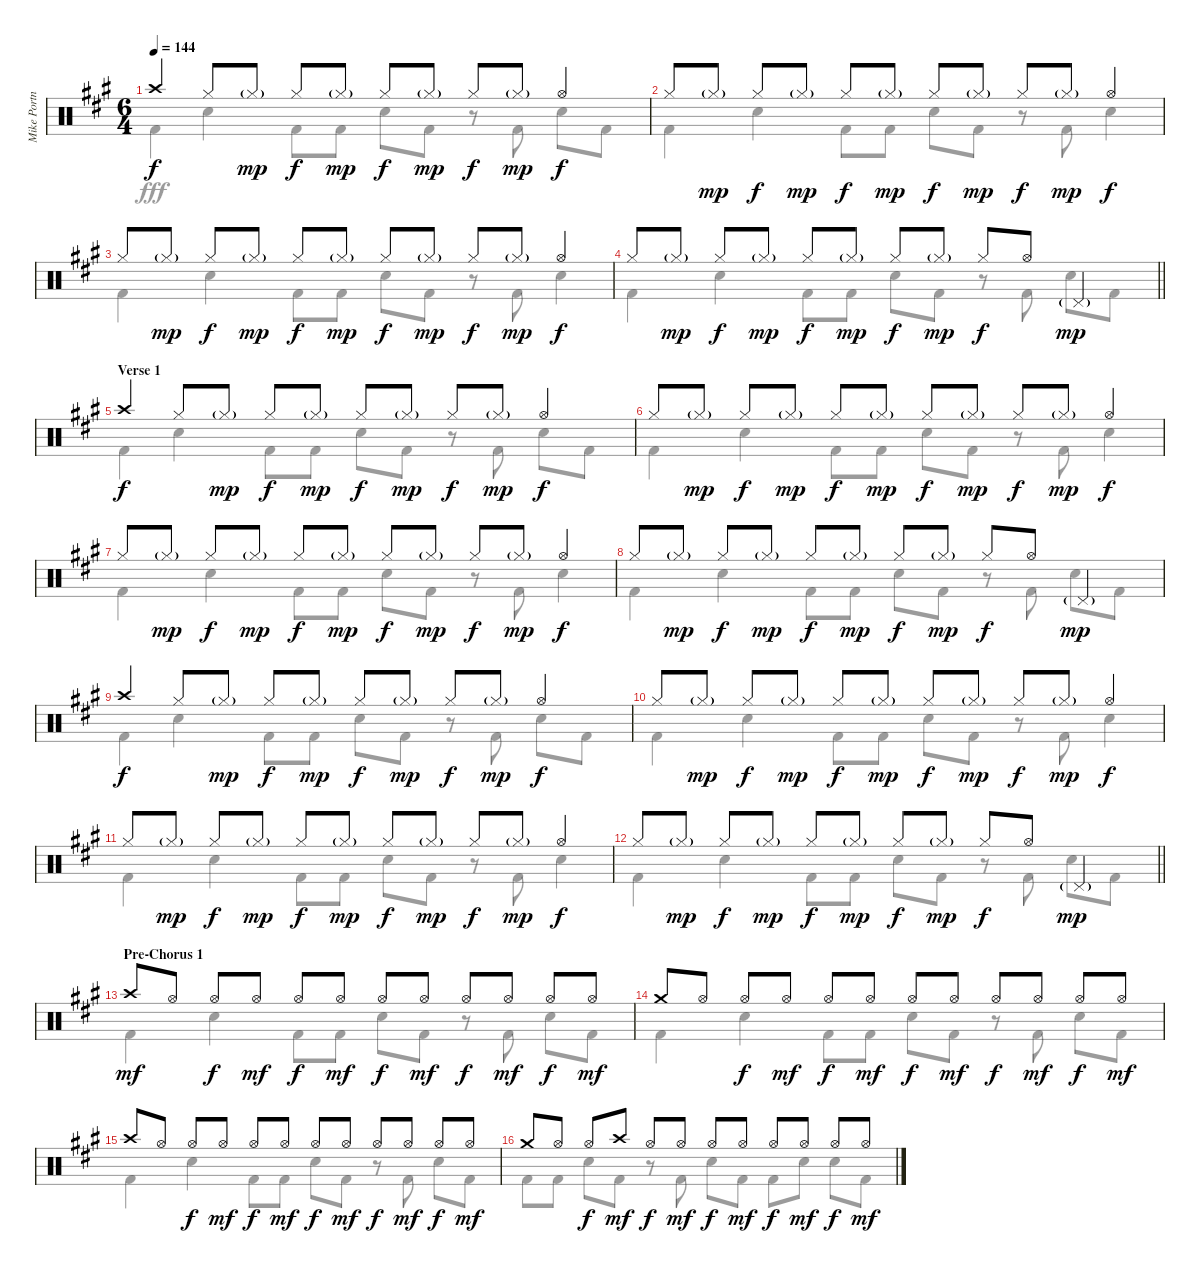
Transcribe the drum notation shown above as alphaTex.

\track ("Mike Portnoy Drums" "Mike Portn") {instrument percussion}
\staff {score}
\articulation defaults
\voice
\ts (6 4)
\tempo 144
\clef neutral
\ks f#minor "Crash high (hit)".4{dy f} "Hi-Hat (closed)".8 "Hi-Hat (closed)"{g}.8{dy mp} "Hi-Hat (closed)".8{dy f} "Hi-Hat (closed)"{g}.8{dy mp} "Hi-Hat (closed)".8{dy f} "Hi-Hat (closed)"{g}.8{dy mp} "Hi-Hat (closed)".8{dy f} "Hi-Hat (closed)"{g}.8{dy mp} "Hi-Hat (open)".4{dy f}
|
"Hi-Hat (closed)".8 "Hi-Hat (closed)"{g}.8{dy mp} "Hi-Hat (closed)".8{dy f} "Hi-Hat (closed)"{g}.8{dy mp} "Hi-Hat (closed)".8{dy f} "Hi-Hat (closed)"{g}.8{dy mp} "Hi-Hat (closed)".8{dy f} "Hi-Hat (closed)"{g}.8{dy mp} "Hi-Hat (closed)".8{dy f} "Hi-Hat (closed)"{g}.8{dy mp} "Hi-Hat (open)".4{dy f} |
"Hi-Hat (closed)".8 "Hi-Hat (closed)"{g}.8{dy mp} "Hi-Hat (closed)".8{dy f} "Hi-Hat (closed)"{g}.8{dy mp} "Hi-Hat (closed)".8{dy f} "Hi-Hat (closed)"{g}.8{dy mp} "Hi-Hat (closed)".8{dy f} "Hi-Hat (closed)"{g}.8{dy mp} "Hi-Hat (closed)".8{dy f} "Hi-Hat (closed)"{g}.8{dy mp} "Hi-Hat (open)".4{dy f} |
\barLineRight lightlight "Hi-Hat (closed)".8 "Hi-Hat (closed)"{g}.8{dy mp} "Hi-Hat (closed)".8{dy f} "Hi-Hat (closed)"{g}.8{dy mp} "Hi-Hat (closed)".8{dy f} "Hi-Hat (closed)"{g}.8{dy mp} "Hi-Hat (closed)".8{dy f} "Hi-Hat (closed)"{g}.8{dy mp} "Hi-Hat (closed)".8{dy f} "Hi-Hat (open)".8 "Pedal Hi-Hat (hit)"{g}.4{dy mp}
|
\section ("" "Verse 1")
"Crash high (hit)".4{dy f} "Hi-Hat (closed)".8 "Hi-Hat (closed)"{g}.8{dy mp} "Hi-Hat (closed)".8{dy f} "Hi-Hat (closed)"{g}.8{dy mp} "Hi-Hat (closed)".8{dy f} "Hi-Hat (closed)"{g}.8{dy mp} "Hi-Hat (closed)".8{dy f} "Hi-Hat (closed)"{g}.8{dy mp} "Hi-Hat (open)".4{dy f} |
"Hi-Hat (closed)".8 "Hi-Hat (closed)"{g}.8{dy mp} "Hi-Hat (closed)".8{dy f} "Hi-Hat (closed)"{g}.8{dy mp} "Hi-Hat (closed)".8{dy f} "Hi-Hat (closed)"{g}.8{dy mp} "Hi-Hat (closed)".8{dy f} "Hi-Hat (closed)"{g}.8{dy mp} "Hi-Hat (closed)".8{dy f} "Hi-Hat (closed)"{g}.8{dy mp} "Hi-Hat (open)".4{dy f} |
"Hi-Hat (closed)".8 "Hi-Hat (closed)"{g}.8{dy mp} "Hi-Hat (closed)".8{dy f} "Hi-Hat (closed)"{g}.8{dy mp} "Hi-Hat (closed)".8{dy f} "Hi-Hat (closed)"{g}.8{dy mp} "Hi-Hat (closed)".8{dy f} "Hi-Hat (closed)"{g}.8{dy mp} "Hi-Hat (closed)".8{dy f} "Hi-Hat (closed)"{g}.8{dy mp} "Hi-Hat (open)".4{dy f} |
"Hi-Hat (closed)".8 "Hi-Hat (closed)"{g}.8{dy mp} "Hi-Hat (closed)".8{dy f} "Hi-Hat (closed)"{g}.8{dy mp} "Hi-Hat (closed)".8{dy f} "Hi-Hat (closed)"{g}.8{dy mp} "Hi-Hat (closed)".8{dy f} "Hi-Hat (closed)"{g}.8{dy mp} "Hi-Hat (closed)".8{dy f} "Hi-Hat (open)".8 "Pedal Hi-Hat (hit)"{g}.4{dy mp} |
"Crash high (hit)".4{dy f} "Hi-Hat (closed)".8 "Hi-Hat (closed)"{g}.8{dy mp} "Hi-Hat (closed)".8{dy f} "Hi-Hat (closed)"{g}.8{dy mp} "Hi-Hat (closed)".8{dy f} "Hi-Hat (closed)"{g}.8{dy mp} "Hi-Hat (closed)".8{dy f} "Hi-Hat (closed)"{g}.8{dy mp} "Hi-Hat (open)".4{dy f} |
"Hi-Hat (closed)".8 "Hi-Hat (closed)"{g}.8{dy mp} "Hi-Hat (closed)".8{dy f} "Hi-Hat (closed)"{g}.8{dy mp} "Hi-Hat (closed)".8{dy f} "Hi-Hat (closed)"{g}.8{dy mp} "Hi-Hat (closed)".8{dy f} "Hi-Hat (closed)"{g}.8{dy mp} "Hi-Hat (closed)".8{dy f} "Hi-Hat (closed)"{g}.8{dy mp} "Hi-Hat (open)".4{dy f} |
"Hi-Hat (closed)".8 "Hi-Hat (closed)"{g}.8{dy mp} "Hi-Hat (closed)".8{dy f} "Hi-Hat (closed)"{g}.8{dy mp} "Hi-Hat (closed)".8{dy f} "Hi-Hat (closed)"{g}.8{dy mp} "Hi-Hat (closed)".8{dy f} "Hi-Hat (closed)"{g}.8{dy mp} "Hi-Hat (closed)".8{dy f} "Hi-Hat (closed)"{g}.8{dy mp} "Hi-Hat (open)".4{dy f} |
\barLineRight lightlight "Hi-Hat (closed)".8 "Hi-Hat (closed)"{g}.8{dy mp} "Hi-Hat (closed)".8{dy f} "Hi-Hat (closed)"{g}.8{dy mp} "Hi-Hat (closed)".8{dy f} "Hi-Hat (closed)"{g}.8{dy mp} "Hi-Hat (closed)".8{dy f} "Hi-Hat (closed)"{g}.8{dy mp} "Hi-Hat (closed)".8{dy f} "Hi-Hat (open)".8 "Pedal Hi-Hat (hit)"{g}.4{dy mp}
|
\section ("" "Pre-Chorus 1")
"Crash high (hit)".8{dy mf} "Hi-Hat (open)".8 "Hi-Hat (open)".8{dy f} "Hi-Hat (open)".8{dy mf} "Hi-Hat (open)".8{dy f} "Hi-Hat (open)".8{dy mf} "Hi-Hat (open)".8{dy f} "Hi-Hat (open)".8{dy mf} "Hi-Hat (open)".8{dy f} "Hi-Hat (open)".8{dy mf} "Hi-Hat (open)".8{dy f} "Hi-Hat (open)".8{dy mf} |
"Crash medium (hit)".8 "Hi-Hat (open)".8 "Hi-Hat (open)".8{dy f} "Hi-Hat (open)".8{dy mf} "Hi-Hat (open)".8{dy f} "Hi-Hat (open)".8{dy mf} "Hi-Hat (open)".8{dy f} "Hi-Hat (open)".8{dy mf} "Hi-Hat (open)".8{dy f} "Hi-Hat (open)".8{dy mf} "Hi-Hat (open)".8{dy f} "Hi-Hat (open)".8{dy mf} |
"Crash high (hit)".8 "Hi-Hat (open)".8 "Hi-Hat (open)".8{dy f} "Hi-Hat (open)".8{dy mf} "Hi-Hat (open)".8{dy f} "Hi-Hat (open)".8{dy mf} "Hi-Hat (open)".8{dy f} "Hi-Hat (open)".8{dy mf} "Hi-Hat (open)".8{dy f} "Hi-Hat (open)".8{dy mf} "Hi-Hat (open)".8{dy f} "Hi-Hat (open)".8{dy mf} |
"Crash medium (hit)".8 "Hi-Hat (open)".8 "Hi-Hat (open)".8{dy f} "Crash high (hit)".8{dy mf} "Hi-Hat (open)".8{dy f} "Hi-Hat (open)".8{dy mf} "Hi-Hat (open)".8{dy f} "Hi-Hat (open)".8{dy mf} "Hi-Hat (open)".8{dy f} "Hi-Hat (open)".8{dy mf} "Hi-Hat (open)".8{dy f} "Hi-Hat (open)".8{dy mf}
\voice
\clef neutral
\ottava regular
\simile none
\ks f#minor "Kick (hit) 2".4{dy fff} "Snare (hit) 2".4 "Kick (hit) 2".8 "Kick (hit) 2".8 "Snare (hit) 2".8 "Kick (hit) 2".8
r.8 "Kick (hit) 2".8 "Snare (hit) 2".8 "Kick (hit) 2".8 |
"Kick (hit) 2".4 "Snare (hit) 2".4 "Kick (hit) 2".8 "Kick (hit) 2".8 "Snare (hit) 2".8 "Kick (hit) 2".8 r.8 "Kick (hit) 2".8 "Snare (hit) 2".4 |
"Kick (hit) 2".4 "Snare (hit) 2".4 "Kick (hit) 2".8 "Kick (hit) 2".8 "Snare (hit) 2".8 "Kick (hit) 2".8 r.8 "Kick (hit) 2".8 "Snare (hit) 2".4 |
\barLineRight lightlight "Kick (hit) 2".4 "Snare (hit) 2".4 "Kick (hit) 2".8 "Kick (hit) 2".8 "Snare (hit) 2".8 "Kick (hit) 2".8
r.8 "Kick (hit) 2".8 "Snare (hit) 2".8 "Kick (hit) 2".8 |
"Kick (hit) 2".4 "Snare (hit) 2".4 "Kick (hit) 2".8 "Kick (hit) 2".8 "Snare (hit) 2".8 "Kick (hit) 2".8 r.8 "Kick (hit) 2".8 "Snare (hit) 2".8 "Kick (hit) 2".8 |
"Kick (hit) 2".4 "Snare (hit) 2".4 "Kick (hit) 2".8 "Kick (hit) 2".8 "Snare (hit) 2".8 "Kick (hit) 2".8 r.8 "Kick (hit) 2".8 "Snare (hit) 2".4 |
"Kick (hit) 2".4 "Snare (hit) 2".4 "Kick (hit) 2".8 "Kick (hit) 2".8 "Snare (hit) 2".8 "Kick (hit) 2".8 r.8 "Kick (hit) 2".8 "Snare (hit) 2".4 |
"Kick (hit) 2".4 "Snare (hit) 2".4 "Kick (hit) 2".8 "Kick (hit) 2".8 "Snare (hit) 2".8 "Kick (hit) 2".8 r.8 "Kick (hit) 2".8 "Snare (hit) 2".8 "Kick (hit) 2".8 |
"Kick (hit) 2".4 "Snare (hit) 2".4 "Kick (hit) 2".8 "Kick (hit) 2".8 "Snare (hit) 2".8 "Kick (hit) 2".8 r.8 "Kick (hit) 2".8 "Snare (hit) 2".8 "Kick (hit) 2".8 |
"Kick (hit) 2".4 "Snare (hit) 2".4 "Kick (hit) 2".8 "Kick (hit) 2".8 "Snare (hit) 2".8 "Kick (hit) 2".8 r.8 "Kick (hit) 2".8 "Snare (hit) 2".4 |
"Kick (hit) 2".4 "Snare (hit) 2".4 "Kick (hit) 2".8 "Kick (hit) 2".8 "Snare (hit) 2".8 "Kick (hit) 2".8 r.8 "Kick (hit) 2".8 "Snare (hit) 2".4 |
\barLineRight lightlight "Kick (hit) 2".4 "Snare (hit) 2".4 "Kick (hit) 2".8 "Kick (hit) 2".8 "Snare (hit) 2".8 "Kick (hit) 2".8
r.8 "Kick (hit) 2".8 "Snare (hit) 2".8 "Kick (hit) 2".8 |
"Kick (hit) 2".4 "Snare (hit) 2".4 "Kick (hit) 2".8 "Kick (hit) 2".8 "Snare (hit) 2".8 "Kick (hit) 2".8 r.8 "Kick (hit) 2".8 "Snare (hit) 2".8 "Kick (hit) 2".8 |
"Kick (hit) 2".4 "Snare (hit) 2".4 "Kick (hit) 2".8 "Kick (hit) 2".8 "Snare (hit) 2".8 "Kick (hit) 2".8 r.8 "Kick (hit) 2".8 "Snare (hit) 2".8 "Kick (hit) 2".8 |
"Kick (hit) 2".4 "Snare (hit) 2".4 "Kick (hit) 2".8 "Kick (hit) 2".8 "Snare (hit) 2".8 "Kick (hit) 2".8 r.8 "Kick (hit) 2".8 "Snare (hit) 2".8 "Kick (hit) 2".8 |
"Kick (hit) 2".8 "Kick (hit) 2".8 "Snare (hit) 2".8 "Kick (hit) 2".8 r.8 "Kick (hit) 2".8 "Snare (hit) 2".8 "Kick (hit) 2".8 "Kick (hit) 2".8 "Snare (hit) 2".8 "Snare (hit) 2".8 "Kick (hit) 2".8
